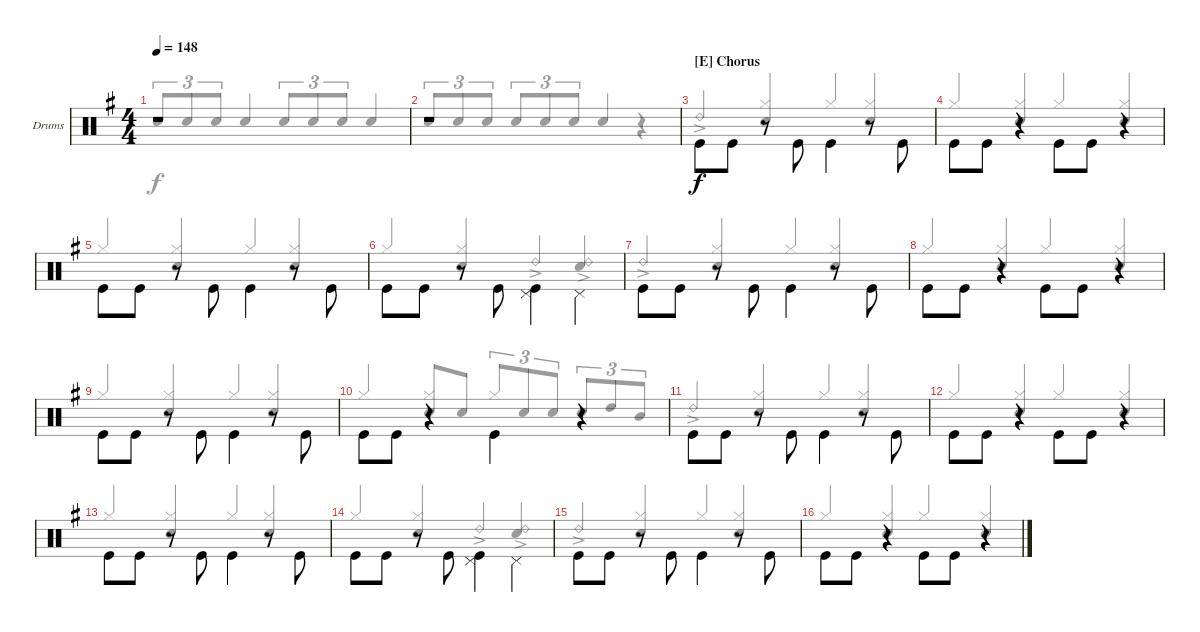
\bracketExtendMode groupsimilarinstruments
\firstSystemTrackNameOrientation horizontal
\otherSystemsTrackNameOrientation horizontal
\track ("Drumkit" "Drums") {instrument percussion}
\staff {score}
\articulation defaults
\voice
\ts (4 4)
\tempo 148
\clef neutral
\scale
1.04288
\ks g
r.1{dy f} |
\scale
0.957125 r.1 |
\section ("E" "Chorus")
\scale
1.04288 "Kick (hit)".8{beam invert} "Kick (hit)".8 r.8{beam invert} "Kick (hit)".8{beam invert} "Kick (hit)".4{beam invert} r.8{beam invert} "Kick (hit)".8{beam invert} |
\scale
0.957125 "Kick (hit)".8{beam invert} "Kick (hit)".8 r.4{beam invert} "Kick (hit)".8{beam invert} "Kick (hit)".8 r.4{beam invert} |
\scale
1.04288 "Kick (hit)".8{beam invert} "Kick (hit)".8 r.8{beam invert} "Kick (hit)".8{beam invert} "Kick (hit)".4{beam invert} r.8{beam invert} "Kick (hit)".8{beam invert} |
\scale
0.957125 "Kick (hit)".8{beam invert} "Kick (hit)".8 r.8{beam invert} "Kick (hit)".8{beam invert} ("Kick (hit)" "Pedal Hi-Hat (hit)").4{beam invert} "Pedal Hi-Hat (hit)".4{beam invert} |
\scale
1.04288 "Kick (hit)".8{beam invert} "Kick (hit)".8 r.8{beam invert} "Kick (hit)".8{beam invert} "Kick (hit)".4{beam invert} r.8{beam invert} "Kick (hit)".8{beam invert} |
\scale
0.957125 "Kick (hit)".8{beam invert} "Kick (hit)".8 r.4{beam invert} "Kick (hit)".8{beam invert} "Kick (hit)".8 r.4{beam invert} |
\scale
1.04288 "Kick (hit)".8{beam invert} "Kick (hit)".8 r.8{beam invert} "Kick (hit)".8{beam invert} "Kick (hit)".4{beam invert} r.8{beam invert} "Kick (hit)".8{beam invert} |
\scale
0.957125 "Kick (hit)".8{beam invert} "Kick (hit)".8 r.4{beam invert} "Kick (hit)".4{beam invert} r.4 |
\scale
1.04288 "Kick (hit)".8{beam invert} "Kick (hit)".8 r.8{beam invert} "Kick (hit)".8{beam invert} "Kick (hit)".4{beam invert} r.8{beam invert} "Kick (hit)".8{beam invert} |
\scale
0.957125 "Kick (hit)".8{beam invert} "Kick (hit)".8 r.4{beam invert} "Kick (hit)".8{beam invert} "Kick (hit)".8 r.4{beam invert} |
\scale
1.04288 "Kick (hit)".8{beam invert} "Kick (hit)".8 r.8{beam invert} "Kick (hit)".8{beam invert} "Kick (hit)".4{beam invert} r.8{beam invert} "Kick (hit)".8{beam invert} |
\scale
0.957125 "Kick (hit)".8{beam invert} "Kick (hit)".8 r.8{beam invert} "Kick (hit)".8{beam invert} ("Kick (hit)" "Pedal Hi-Hat (hit)").4{beam invert} "Pedal Hi-Hat (hit)".4{beam invert} |
\scale
1.04288 "Kick (hit)".8{beam invert} "Kick (hit)".8 r.8{beam invert} "Kick (hit)".8{beam invert} "Kick (hit)".4{beam invert} r.8{beam invert} "Kick (hit)".8{beam invert} |
\scale
0.957125 "Kick (hit)".8{beam invert} "Kick (hit)".8 r.4{beam invert} "Kick (hit)".8{beam invert} "Kick (hit)".8 r.4{beam invert}
\voice
\clef neutral
\ottava regular
\simile none
\scale
1.04288
\ks g "Snare (hit) 2".8{tu (3 2) dy f beam invert} "Snare (hit) 2".8{tu (3 2)} "Snare (hit) 2".8{tu (3 2)} "Snare (hit) 2".4{beam invert} "Snare (hit) 2".8{tu (3 2) beam invert} "Snare (hit) 2".8{tu (3 2)} "Snare (hit) 2".8{tu (3 2)} "Snare (hit) 2".4{beam invert}
|
\scale
0.957125 "Snare (hit) 2".8{tu (3 2) beam invert} "Snare (hit) 2".8{tu (3 2)} "Snare (hit) 2".8{tu (3 2)} "Snare (hit) 2".8{tu (3 2) beam invert} "Snare (hit) 2".8{tu (3 2)} "Snare (hit) 2".8{tu (3 2)} "Snare (hit) 2".4{beam invert} r.4 |
\scale
1.04288 "Ride (bell) 2"{ac}.4{beam invert} ("Hi-Hat (closed)" "Snare (hit) 2").4{beam invert} "Hi-Hat (closed)".4{beam invert} ("Hi-Hat (closed)" "Snare (hit) 2").4{beam invert} |
\scale
0.957125 "Hi-Hat (closed)".4{beam invert} ("Hi-Hat (closed)" "Snare (hit) 2").4{beam invert} "Hi-Hat (closed)".4{beam invert} ("Hi-Hat (closed)" "Snare (hit) 2").4{beam invert} |
\scale
1.04288 "Hi-Hat (closed)".4{beam invert} ("Hi-Hat (closed)" "Snare (hit) 2").4{beam invert} "Hi-Hat (closed)".4{beam invert} ("Hi-Hat (closed)" "Snare (hit) 2").4{beam invert} |
\scale
0.957125 "Hi-Hat (closed)".4{beam invert} ("Hi-Hat (closed)" "Snare (hit) 2").4{beam invert} "Ride (bell) 2"{ac}.4{beam invert} ("Snare (hit) 2" "Ride (bell) 2"{ac}).4{beam invert} |
\scale
1.04288 "Ride (bell) 2"{ac}.4{beam invert} ("Hi-Hat (closed)" "Snare (hit) 2").4{beam invert} "Hi-Hat (closed)".4{beam invert} ("Hi-Hat (closed)" "Snare (hit) 2").4{beam invert} |
\scale
0.957125 "Hi-Hat (closed)".4{beam invert} ("Hi-Hat (closed)" "Snare (hit) 2").4{beam invert} "Hi-Hat (closed)".4{beam invert} ("Hi-Hat (closed)" "Snare (hit) 2").4{beam invert} |
\scale
1.04288 "Hi-Hat (closed)".4{beam invert} ("Hi-Hat (closed)" "Snare (hit) 2").4{beam invert} "Hi-Hat (closed)".4{beam invert} ("Hi-Hat (closed)" "Snare (hit) 2").4{beam invert} |
\scale
0.957125 "Hi-Hat (closed)".4{beam invert} ("Hi-Hat (closed)" "Snare (hit) 2").8{beam invert} "Snare (hit) 2".8 "Hi-Hat (closed)".8{tu (3 2) beam invert} "Snare (hit) 2".8{tu (3 2)} "Snare (hit) 2".8{tu (3 2)} "Snare (hit) 2".8{tu (3 2) beam invert} "High Tom (hit)".8{tu (3 2)} "Mid Tom (hit)".8{tu (3 2)} |
\scale
1.04288 "Ride (bell) 2"{ac}.4{beam invert} ("Hi-Hat (closed)" "Snare (hit) 2").4{beam invert} "Hi-Hat (closed)".4{beam invert} ("Hi-Hat (closed)" "Snare (hit) 2").4{beam invert} |
\scale
0.957125 "Hi-Hat (closed)".4{beam invert} ("Hi-Hat (closed)" "Snare (hit) 2").4{beam invert} "Hi-Hat (closed)".4{beam invert} ("Hi-Hat (closed)" "Snare (hit) 2").4{beam invert} |
\scale
1.04288 "Hi-Hat (closed)".4{beam invert} ("Hi-Hat (closed)" "Snare (hit) 2").4{beam invert} "Hi-Hat (closed)".4{beam invert} ("Hi-Hat (closed)" "Snare (hit) 2").4{beam invert} |
\scale
0.957125 "Hi-Hat (closed)".4{beam invert} ("Hi-Hat (closed)" "Snare (hit) 2").4{beam invert} "Ride (bell) 2"{ac}.4{beam invert} ("Snare (hit) 2" "Ride (bell) 2"{ac}).4{beam invert} |
\scale
1.04288 "Ride (bell) 2"{ac}.4{beam invert} ("Hi-Hat (closed)" "Snare (hit) 2").4{beam invert} "Hi-Hat (closed)".4{beam invert} ("Hi-Hat (closed)" "Snare (hit) 2").4{beam invert} |
\scale
0.957125 "Hi-Hat (closed)".4{beam invert} ("Hi-Hat (closed)" "Snare (hit) 2").4{beam invert} "Hi-Hat (closed)".4{beam invert} ("Hi-Hat (closed)" "Snare (hit) 2").4{beam invert}
